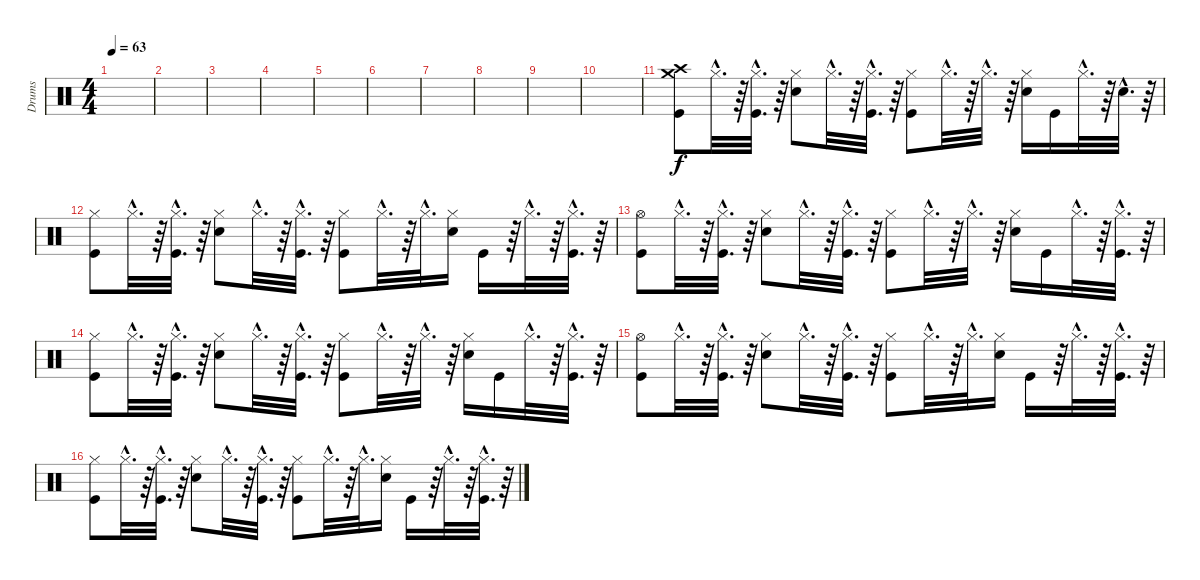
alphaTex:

\track ("Drums" "Drums") {instrument percussion}
\staff {score}
\articulation defaults
\ts (4 4)
\tempo 63
\clef neutral
\ks c
|
|
|
|
|
|
|
|
|
|
("Crash high (hit)" "Crash medium (hit)" "Kick (hit)").8 "Hi-Hat (closed)"{hac}.32{d} r.64 ("Hi-Hat (closed)"{hac} "Kick (hit)"{hac}).32{d} r.64 ("Hi-Hat (closed)" "Electric Snare (hit)").8 "Hi-Hat (closed)"{hac}.32{d} r.64 ("Hi-Hat (closed)"{hac} "Kick (hit)"{hac}).32{d} r.64 ("Hi-Hat (closed)" "Kick (hit)").8 "Hi-Hat (closed)"{hac}.32{d} r.64 "Hi-Hat (closed)"{hac}.32{d} r.64 ("Hi-Hat (closed)" "Electric Snare (hit)").16 "Kick (hit)".16 "Hi-Hat (closed)"{hac}.32{d} r.64 "Electric Snare (hit)"{hac}.32{d} r.64 |
("Kick (hit)" "Hi-Hat (closed)").8 "Hi-Hat (closed)"{hac}.32{d} r.64 ("Kick (hit)"{hac} "Hi-Hat (closed)"{hac}).32{d} r.64 ("Electric Snare (hit)" "Hi-Hat (closed)").8 "Hi-Hat (closed)"{hac}.32{d} r.64 ("Kick (hit)"{hac} "Hi-Hat (closed)"{hac}).32{d} r.64 ("Kick (hit)" "Hi-Hat (closed)").8 "Hi-Hat (closed)"{hac}.32{d} r.64 "Hi-Hat (closed)"{hac}.32{d} ("Electric Snare (hit)" "Hi-Hat (closed)").16 "Kick (hit)".16 r.64 "Hi-Hat (closed)"{hac}.32{d} r.64 ("Kick (hit)"{hac} "Hi-Hat (closed)"{hac}).32{d} r.64 |
("Hi-Hat (open)" "Kick (hit)").8 "Hi-Hat (closed)"{hac}.32{d} r.64 ("Hi-Hat (closed)"{hac} "Kick (hit)"{hac}).32{d} r.64 ("Hi-Hat (closed)" "Electric Snare (hit)").8 "Hi-Hat (closed)"{hac}.32{d} r.64 ("Hi-Hat (closed)"{hac} "Kick (hit)"{hac}).32{d} r.64 ("Hi-Hat (closed)" "Kick (hit)").8 "Hi-Hat (closed)"{hac}.32{d} r.64 "Hi-Hat (closed)"{hac}.32{d} r.64 ("Hi-Hat (closed)" "Electric Snare (hit)").16 "Kick (hit)".16 "Hi-Hat (closed)"{hac}.32{d} r.64 ("Hi-Hat (closed)"{hac} "Kick (hit)"{hac}).32{d} r.64 |
("Hi-Hat (closed)" "Kick (hit)").8 "Hi-Hat (closed)"{hac}.32{d} r.64 ("Hi-Hat (closed)"{hac} "Kick (hit)"{hac}).32{d} r.64 ("Hi-Hat (closed)" "Electric Snare (hit)").8 "Hi-Hat (closed)"{hac}.32{d} r.64 ("Hi-Hat (closed)"{hac} "Kick (hit)"{hac}).32{d} r.64 ("Hi-Hat (closed)" "Kick (hit)").8 "Hi-Hat (closed)"{hac}.32{d} r.64 "Hi-Hat (closed)"{hac}.32{d} r.64 ("Hi-Hat (closed)" "Electric Snare (hit)").16 "Kick (hit)".16 "Hi-Hat (closed)"{hac}.32{d} r.64 ("Hi-Hat (closed)"{hac} "Kick (hit)"{hac}).32{d} r.64 |
("Kick (hit)" "Hi-Hat (open)").8 "Hi-Hat (closed)"{hac}.32{d} r.64 ("Kick (hit)"{hac} "Hi-Hat (closed)"{hac}).32{d} r.64 ("Electric Snare (hit)" "Hi-Hat (closed)").8 "Hi-Hat (closed)"{hac}.32{d} r.64 ("Kick (hit)"{hac} "Hi-Hat (closed)"{hac}).32{d} r.64 ("Kick (hit)" "Hi-Hat (closed)").8 "Hi-Hat (closed)"{hac}.32{d} r.64 "Hi-Hat (closed)"{hac}.32{d} ("Electric Snare (hit)" "Hi-Hat (closed)").16 "Kick (hit)".16 r.64 "Hi-Hat (closed)"{hac}.32{d} r.64 ("Kick (hit)"{hac} "Hi-Hat (closed)"{hac}).32{d} r.64 |
("Kick (hit)" "Hi-Hat (closed)").8 "Hi-Hat (closed)"{hac}.32{d} r.64 ("Kick (hit)"{hac} "Hi-Hat (closed)"{hac}).32{d} r.64 ("Electric Snare (hit)" "Hi-Hat (closed)").8 "Hi-Hat (closed)"{hac}.32{d} r.64 ("Kick (hit)"{hac} "Hi-Hat (closed)"{hac}).32{d} r.64 ("Kick (hit)" "Hi-Hat (closed)").8 "Hi-Hat (closed)"{hac}.32{d} r.64 "Hi-Hat (closed)"{hac}.32{d} ("Electric Snare (hit)" "Hi-Hat (closed)").16 "Kick (hit)".16 r.64 "Hi-Hat (closed)"{hac}.32{d} r.64 ("Kick (hit)"{hac} "Hi-Hat (closed)"{hac}).32{d} r.64
